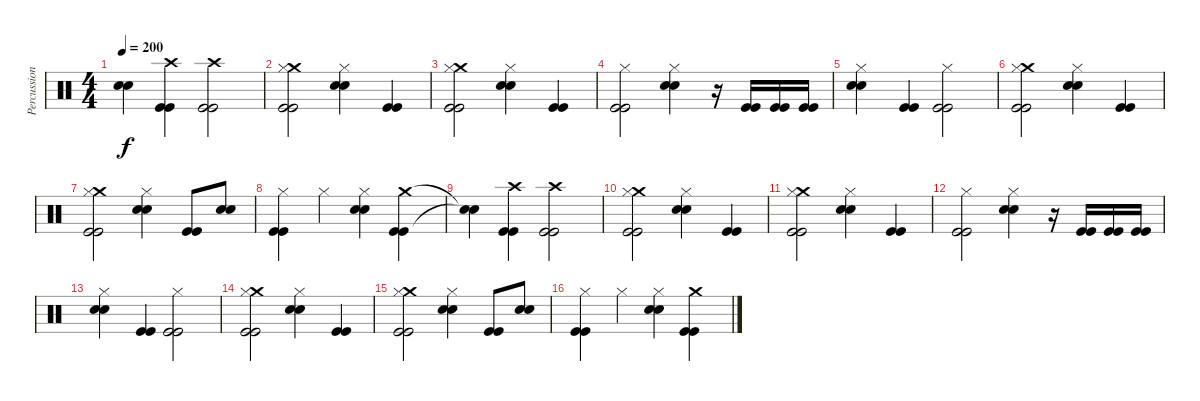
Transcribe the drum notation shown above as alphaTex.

\track ("Percussion" "Percussion") {instrument percussion}
\staff {score}
\articulation defaults
\ts (4 4)
\tempo 200
\clef neutral
\ks c
("Snare (hit)"{t} "Snare (hit)"{t}).4{dy f} ("Crash high (hit)" "Kick (hit)" "Kick (hit)").4 ("Crash high (hit)" "Kick (hit)" "Kick (hit)").2 |
("Crash medium (hit)" "Hi-Hat (closed)" "Kick (hit)" "Kick (hit)").2 ("Snare (hit) 2" "Snare (hit) 2" "Hi-Hat (closed)").4 ("Kick (hit)" "Kick (hit)").4 |
("Crash medium (hit)" "Hi-Hat (closed)" "Kick (hit)" "Kick (hit)").2 ("Snare (hit) 2" "Snare (hit) 2" "Hi-Hat (closed)").4 ("Kick (hit)" "Kick (hit)").4 |
("Hi-Hat (closed)" "Kick (hit)" "Kick (hit)").2 ("Snare (hit) 2" "Snare (hit) 2" "Hi-Hat (closed)").4 r.16 ("Kick (hit)" "Kick (hit)").16 ("Kick (hit)" "Kick (hit)").16 ("Kick (hit)" "Kick (hit)").16 |
("Snare (hit) 2" "Snare (hit) 2" "Hi-Hat (closed)").4 ("Kick (hit)" "Kick (hit)").4 ("Hi-Hat (closed)" "Kick (hit)" "Kick (hit)").2 |
("Crash medium (hit)" "Hi-Hat (closed)" "Kick (hit)" "Kick (hit)").2 ("Snare (hit) 2" "Snare (hit) 2" "Hi-Hat (closed)").4 ("Kick (hit)" "Kick (hit)").4 |
("Crash medium (hit)" "Hi-Hat (closed)" "Kick (hit)" "Kick (hit)").2 ("Snare (hit) 2" "Snare (hit) 2" "Hi-Hat (closed)").4 ("Kick (hit)" "Kick (hit)").8 ("Snare (hit) 2" "Snare (hit) 2").8 |
("Hi-Hat (closed)" "Kick (hit)" "Kick (hit)").4 "Hi-Hat (closed)".4 ("Snare (hit) 2" "Snare (hit) 2" "Hi-Hat (closed)").4 ("Crash medium (hit)" "Kick (hit)" "Kick (hit)").4 |
("Snare (hit)"{t} "Snare (hit)"{t}).4 ("Crash high (hit)" "Kick (hit)" "Kick (hit)").4 ("Crash high (hit)" "Kick (hit)" "Kick (hit)").2 |
("Crash medium (hit)" "Hi-Hat (closed)" "Kick (hit)" "Kick (hit)").2 ("Snare (hit) 2" "Snare (hit) 2" "Hi-Hat (closed)").4 ("Kick (hit)" "Kick (hit)").4 |
("Crash medium (hit)" "Hi-Hat (closed)" "Kick (hit)" "Kick (hit)").2 ("Snare (hit) 2" "Snare (hit) 2" "Hi-Hat (closed)").4 ("Kick (hit)" "Kick (hit)").4 |
("Hi-Hat (closed)" "Kick (hit)" "Kick (hit)").2 ("Snare (hit) 2" "Snare (hit) 2" "Hi-Hat (closed)").4 r.16 ("Kick (hit)" "Kick (hit)").16 ("Kick (hit)" "Kick (hit)").16 ("Kick (hit)" "Kick (hit)").16 |
("Snare (hit) 2" "Snare (hit) 2" "Hi-Hat (closed)").4 ("Kick (hit)" "Kick (hit)").4 ("Hi-Hat (closed)" "Kick (hit)" "Kick (hit)").2 |
("Crash medium (hit)" "Hi-Hat (closed)" "Kick (hit)" "Kick (hit)").2 ("Snare (hit) 2" "Snare (hit) 2" "Hi-Hat (closed)").4 ("Kick (hit)" "Kick (hit)").4 |
("Crash medium (hit)" "Hi-Hat (closed)" "Kick (hit)" "Kick (hit)").2 ("Snare (hit) 2" "Snare (hit) 2" "Hi-Hat (closed)").4 ("Kick (hit)" "Kick (hit)").8 ("Snare (hit) 2" "Snare (hit) 2").8 |
("Hi-Hat (closed)" "Kick (hit)" "Kick (hit)").4 "Hi-Hat (closed)".4 ("Snare (hit) 2" "Snare (hit) 2" "Hi-Hat (closed)").4 ("Crash medium (hit)" "Kick (hit)" "Kick (hit)").4
